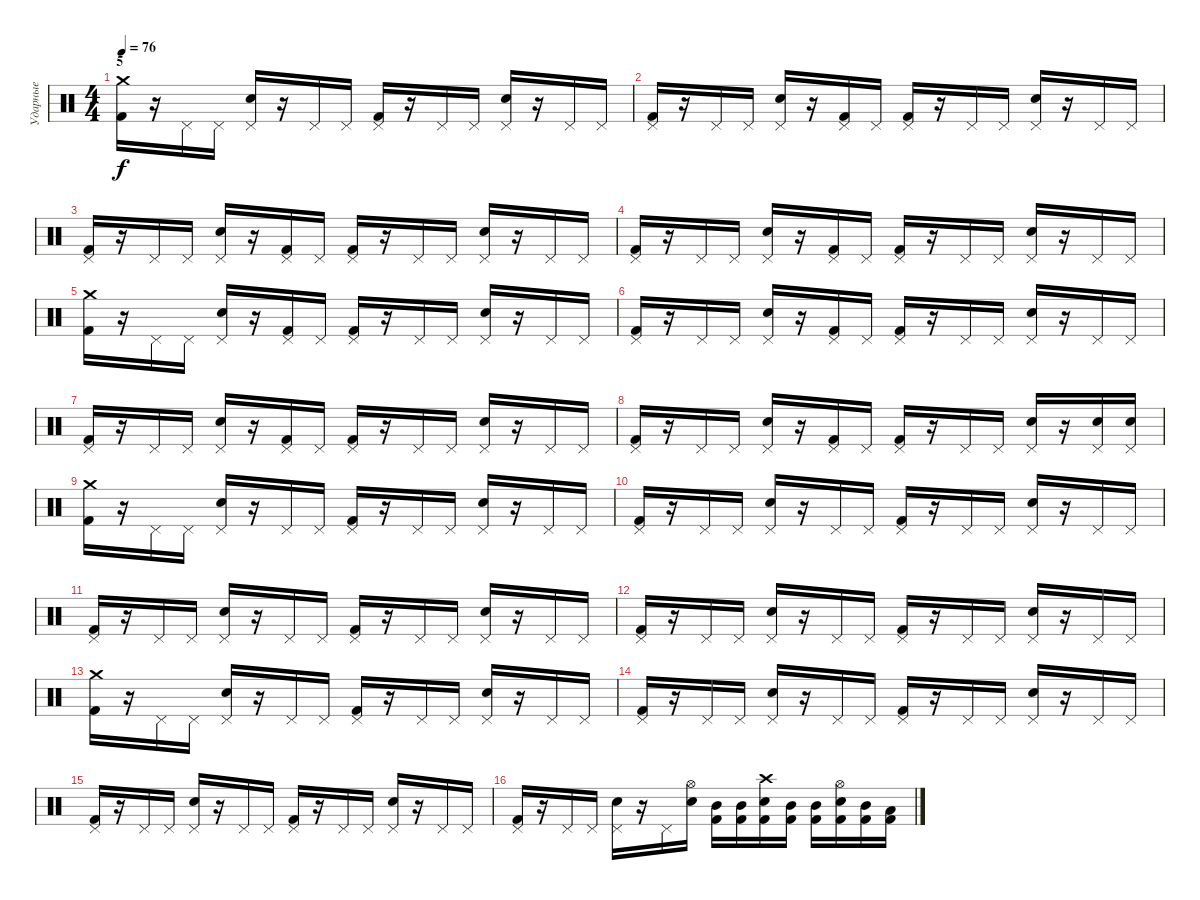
\track ("Ударные" "Ударные") {instrument percussion}
\staff {score}
\articulation defaults
\ts (4 4)
\section ("" "5")
\tempo 76
\clef neutral
\ks c
("Crash medium (hit)" "Kick (hit) 2").16{dy f} r.16 "Pedal Hi-Hat (hit)".16 "Pedal Hi-Hat (hit)".16 ("Pedal Hi-Hat (hit)" "Snare (hit) 2").16 r.16 "Pedal Hi-Hat (hit)".16 "Pedal Hi-Hat (hit)".16 ("Pedal Hi-Hat (hit)" "Kick (hit) 2").16 r.16 "Pedal Hi-Hat (hit)".16 "Pedal Hi-Hat (hit)".16 ("Pedal Hi-Hat (hit)" "Snare (hit) 2").16 r.16 "Pedal Hi-Hat (hit)".16 "Pedal Hi-Hat (hit)".16 |
("Pedal Hi-Hat (hit)" "Kick (hit) 2").16 r.16 "Pedal Hi-Hat (hit)".16 "Pedal Hi-Hat (hit)".16 ("Pedal Hi-Hat (hit)" "Snare (hit) 2").16 r.16 ("Pedal Hi-Hat (hit)" "Kick (hit) 2").16 "Pedal Hi-Hat (hit)".16 ("Pedal Hi-Hat (hit)" "Kick (hit) 2").16 r.16 "Pedal Hi-Hat (hit)".16 "Pedal Hi-Hat (hit)".16 ("Pedal Hi-Hat (hit)" "Snare (hit) 2").16 r.16 "Pedal Hi-Hat (hit)".16 "Pedal Hi-Hat (hit)".16 |
("Pedal Hi-Hat (hit)" "Kick (hit) 2").16 r.16 "Pedal Hi-Hat (hit)".16 "Pedal Hi-Hat (hit)".16 ("Pedal Hi-Hat (hit)" "Snare (hit) 2").16 r.16 ("Pedal Hi-Hat (hit)" "Kick (hit) 2").16 "Pedal Hi-Hat (hit)".16 ("Pedal Hi-Hat (hit)" "Kick (hit) 2").16 r.16 "Pedal Hi-Hat (hit)".16 "Pedal Hi-Hat (hit)".16 ("Pedal Hi-Hat (hit)" "Snare (hit) 2").16 r.16 "Pedal Hi-Hat (hit)".16 "Pedal Hi-Hat (hit)".16 |
("Pedal Hi-Hat (hit)" "Kick (hit) 2").16 r.16 "Pedal Hi-Hat (hit)".16 "Pedal Hi-Hat (hit)".16 ("Pedal Hi-Hat (hit)" "Snare (hit) 2").16 r.16 ("Pedal Hi-Hat (hit)" "Kick (hit) 2").16 "Pedal Hi-Hat (hit)".16 ("Pedal Hi-Hat (hit)" "Kick (hit) 2").16 r.16 "Pedal Hi-Hat (hit)".16 "Pedal Hi-Hat (hit)".16 ("Pedal Hi-Hat (hit)" "Snare (hit) 2").16 r.16 "Pedal Hi-Hat (hit)".16 "Pedal Hi-Hat (hit)".16 |
("Crash medium (hit)" "Kick (hit) 2").16 r.16 "Pedal Hi-Hat (hit)".16 "Pedal Hi-Hat (hit)".16 ("Pedal Hi-Hat (hit)" "Snare (hit) 2").16 r.16 ("Pedal Hi-Hat (hit)" "Kick (hit) 2").16 "Pedal Hi-Hat (hit)".16 ("Pedal Hi-Hat (hit)" "Kick (hit) 2").16 r.16 "Pedal Hi-Hat (hit)".16 "Pedal Hi-Hat (hit)".16 ("Pedal Hi-Hat (hit)" "Snare (hit) 2").16 r.16 "Pedal Hi-Hat (hit)".16 "Pedal Hi-Hat (hit)".16 |
("Pedal Hi-Hat (hit)" "Kick (hit) 2").16 r.16 "Pedal Hi-Hat (hit)".16 "Pedal Hi-Hat (hit)".16 ("Pedal Hi-Hat (hit)" "Snare (hit) 2").16 r.16 ("Pedal Hi-Hat (hit)" "Kick (hit) 2").16 "Pedal Hi-Hat (hit)".16 ("Pedal Hi-Hat (hit)" "Kick (hit) 2").16 r.16 "Pedal Hi-Hat (hit)".16 "Pedal Hi-Hat (hit)".16 ("Pedal Hi-Hat (hit)" "Snare (hit) 2").16 r.16 "Pedal Hi-Hat (hit)".16 "Pedal Hi-Hat (hit)".16 |
("Pedal Hi-Hat (hit)" "Kick (hit) 2").16 r.16 "Pedal Hi-Hat (hit)".16 "Pedal Hi-Hat (hit)".16 ("Pedal Hi-Hat (hit)" "Snare (hit) 2").16 r.16 ("Pedal Hi-Hat (hit)" "Kick (hit) 2").16 "Pedal Hi-Hat (hit)".16 ("Pedal Hi-Hat (hit)" "Kick (hit) 2").16 r.16 "Pedal Hi-Hat (hit)".16 "Pedal Hi-Hat (hit)".16 ("Pedal Hi-Hat (hit)" "Snare (hit) 2").16 r.16 "Pedal Hi-Hat (hit)".16 "Pedal Hi-Hat (hit)".16 |
("Pedal Hi-Hat (hit)" "Kick (hit) 2").16 r.16 "Pedal Hi-Hat (hit)".16 "Pedal Hi-Hat (hit)".16 ("Pedal Hi-Hat (hit)" "Snare (hit) 2").16 r.16 ("Pedal Hi-Hat (hit)" "Kick (hit) 2").16 "Pedal Hi-Hat (hit)".16 ("Pedal Hi-Hat (hit)" "Kick (hit) 2").16 r.16 "Pedal Hi-Hat (hit)".16 "Pedal Hi-Hat (hit)".16 ("Pedal Hi-Hat (hit)" "Snare (hit) 2").16 r.16 ("Pedal Hi-Hat (hit)" "Snare (hit) 2").16 ("Pedal Hi-Hat (hit)" "Snare (hit) 2").16 |
("Crash medium (hit)" "Kick (hit) 2").16 r.16 "Pedal Hi-Hat (hit)".16 "Pedal Hi-Hat (hit)".16 ("Pedal Hi-Hat (hit)" "Snare (hit) 2").16 r.16 "Pedal Hi-Hat (hit)".16 "Pedal Hi-Hat (hit)".16 ("Pedal Hi-Hat (hit)" "Kick (hit) 2").16 r.16 "Pedal Hi-Hat (hit)".16 "Pedal Hi-Hat (hit)".16 ("Pedal Hi-Hat (hit)" "Snare (hit) 2").16 r.16 "Pedal Hi-Hat (hit)".16 "Pedal Hi-Hat (hit)".16 |
("Pedal Hi-Hat (hit)" "Kick (hit) 2").16 r.16 "Pedal Hi-Hat (hit)".16 "Pedal Hi-Hat (hit)".16 ("Pedal Hi-Hat (hit)" "Snare (hit) 2").16 r.16 "Pedal Hi-Hat (hit)".16 "Pedal Hi-Hat (hit)".16 ("Pedal Hi-Hat (hit)" "Kick (hit) 2").16 r.16 "Pedal Hi-Hat (hit)".16 "Pedal Hi-Hat (hit)".16 ("Pedal Hi-Hat (hit)" "Snare (hit) 2").16 r.16 "Pedal Hi-Hat (hit)".16 "Pedal Hi-Hat (hit)".16 |
("Pedal Hi-Hat (hit)" "Kick (hit) 2").16 r.16 "Pedal Hi-Hat (hit)".16 "Pedal Hi-Hat (hit)".16 ("Pedal Hi-Hat (hit)" "Snare (hit) 2").16 r.16 "Pedal Hi-Hat (hit)".16 "Pedal Hi-Hat (hit)".16 ("Pedal Hi-Hat (hit)" "Kick (hit) 2").16 r.16 "Pedal Hi-Hat (hit)".16 "Pedal Hi-Hat (hit)".16 ("Pedal Hi-Hat (hit)" "Snare (hit) 2").16 r.16 "Pedal Hi-Hat (hit)".16 "Pedal Hi-Hat (hit)".16 |
("Pedal Hi-Hat (hit)" "Kick (hit) 2").16 r.16 "Pedal Hi-Hat (hit)".16 "Pedal Hi-Hat (hit)".16 ("Pedal Hi-Hat (hit)" "Snare (hit) 2").16 r.16 "Pedal Hi-Hat (hit)".16 "Pedal Hi-Hat (hit)".16 ("Pedal Hi-Hat (hit)" "Kick (hit) 2").16 r.16 "Pedal Hi-Hat (hit)".16 "Pedal Hi-Hat (hit)".16 ("Pedal Hi-Hat (hit)" "Snare (hit) 2").16 r.16 "Pedal Hi-Hat (hit)".16 "Pedal Hi-Hat (hit)".16 |
("Crash medium (hit)" "Kick (hit) 2").16 r.16 "Pedal Hi-Hat (hit)".16 "Pedal Hi-Hat (hit)".16 ("Pedal Hi-Hat (hit)" "Snare (hit) 2").16 r.16 "Pedal Hi-Hat (hit)".16 "Pedal Hi-Hat (hit)".16 ("Pedal Hi-Hat (hit)" "Kick (hit) 2").16 r.16 "Pedal Hi-Hat (hit)".16 "Pedal Hi-Hat (hit)".16 ("Pedal Hi-Hat (hit)" "Snare (hit) 2").16 r.16 "Pedal Hi-Hat (hit)".16 "Pedal Hi-Hat (hit)".16 |
("Pedal Hi-Hat (hit)" "Kick (hit) 2").16 r.16 "Pedal Hi-Hat (hit)".16 "Pedal Hi-Hat (hit)".16 ("Pedal Hi-Hat (hit)" "Snare (hit) 2").16 r.16 "Pedal Hi-Hat (hit)".16 "Pedal Hi-Hat (hit)".16 ("Pedal Hi-Hat (hit)" "Kick (hit) 2").16 r.16 "Pedal Hi-Hat (hit)".16 "Pedal Hi-Hat (hit)".16 ("Pedal Hi-Hat (hit)" "Snare (hit) 2").16 r.16 "Pedal Hi-Hat (hit)".16 "Pedal Hi-Hat (hit)".16 |
("Pedal Hi-Hat (hit)" "Kick (hit) 2").16 r.16 "Pedal Hi-Hat (hit)".16 "Pedal Hi-Hat (hit)".16 ("Pedal Hi-Hat (hit)" "Snare (hit) 2").16 r.16 "Pedal Hi-Hat (hit)".16 "Pedal Hi-Hat (hit)".16 ("Pedal Hi-Hat (hit)" "Kick (hit) 2").16 r.16 "Pedal Hi-Hat (hit)".16 "Pedal Hi-Hat (hit)".16 ("Pedal Hi-Hat (hit)" "Snare (hit) 2").16 r.16 "Pedal Hi-Hat (hit)".16 "Pedal Hi-Hat (hit)".16 |
("Pedal Hi-Hat (hit)" "Kick (hit) 2").16 r.16 "Pedal Hi-Hat (hit)".16 "Pedal Hi-Hat (hit)".16 ("Pedal Hi-Hat (hit)" "Snare (hit) 2").16 r.16 "Pedal Hi-Hat (hit)".16 ("Hi-Hat (open)" "Snare (hit) 2").16 ("Mid Tom (hit)" "Kick (hit) 2").16 ("Mid Tom (hit)" "Kick (hit) 2").16 ("Crash high (hit)" "Snare (hit) 2" "Kick (hit) 2").16 ("Mid Tom (hit)" "Kick (hit) 2").16 ("Mid Tom (hit)" "Kick (hit) 2").16 ("Hi-Hat (open)" "Snare (hit) 2" "Kick (hit) 2").16 ("Mid Tom (hit)" "Kick (hit) 2").16 ("Low Tom (hit)" "Kick (hit) 2").16
